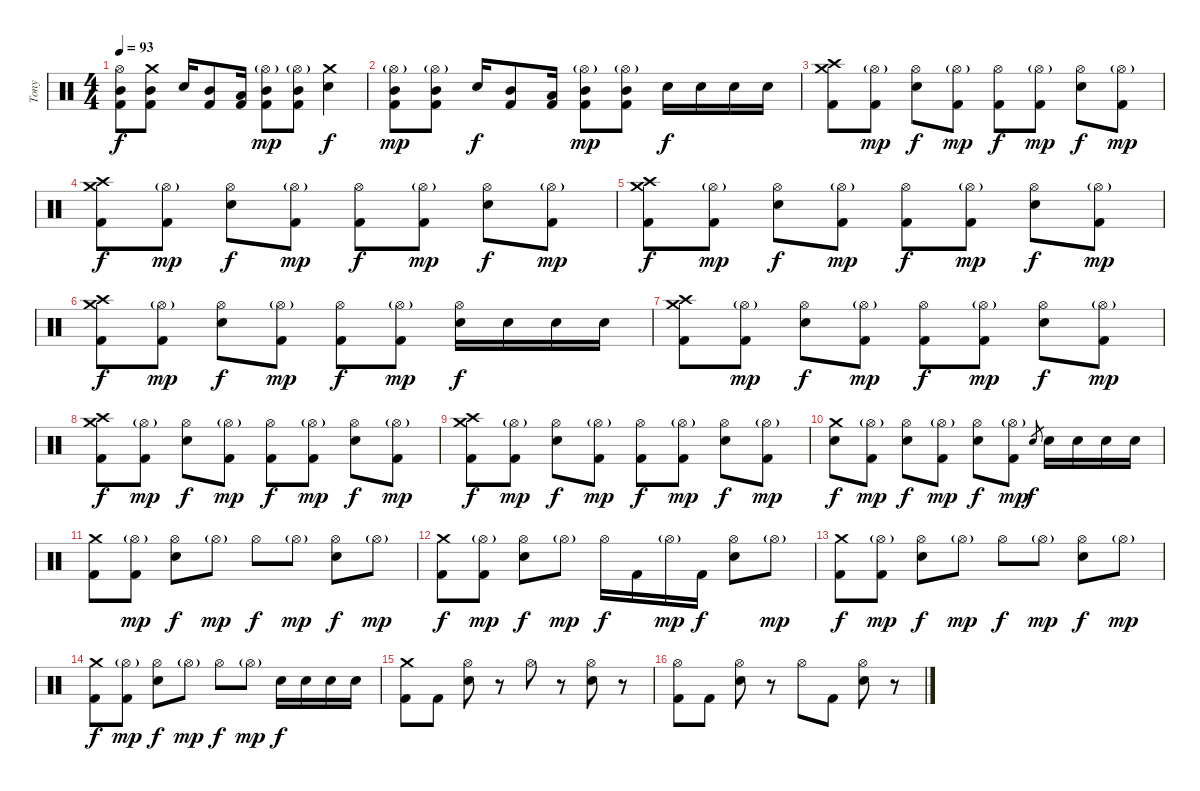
\track ("Tony" "Tony") {instrument percussion}
\staff {score}
\articulation defaults
\ts (4 4)
\tempo 93
\clef neutral
\ks c
("Hi-Hat (open)" "Mid Tom (hit)" "Kick (hit) 2").8{dy f} ("Crash medium (hit)" "Mid Tom (hit)" "Kick (hit) 2").8 "Electric Snare (hit)".16 ("Mid Tom (hit)" "Kick (hit) 2").8 ("Low Tom (hit)" "Kick (hit) 2").16 ("Hi-Hat (open)"{g} "Mid Tom (hit)" "Kick (hit) 2").8{dy mp} ("Hi-Hat (open)"{g} "Mid Tom (hit)" "Kick (hit) 2").8 ("Crash medium (hit)" "Electric Snare (hit)").4{dy f} |
("Hi-Hat (open)"{g} "Mid Tom (hit)" "Kick (hit) 2").8{dy mp} ("Hi-Hat (open)"{g} "Mid Tom (hit)" "Kick (hit) 2").8 "Electric Snare (hit)".16{dy f} ("Mid Tom (hit)" "Kick (hit) 2").8 ("Low Tom (hit)" "Kick (hit) 2").16 ("Hi-Hat (open)"{g} "Mid Tom (hit)" "Kick (hit) 2").8{dy mp} ("Hi-Hat (open)"{g} "Mid Tom (hit)" "Kick (hit) 2").8 "Electric Snare (hit)".16{dy f} "Electric Snare (hit)".16 "Electric Snare (hit)".16 "Electric Snare (hit)".16 |
("Crash high (hit)" "Crash medium (hit)" "Kick (hit) 2").8 ("Hi-Hat (open)"{g} "Kick (hit) 2").8{dy mp} ("Hi-Hat (open)" "Electric Snare (hit)").8{dy f} ("Hi-Hat (open)"{g} "Kick (hit) 2").8{dy mp} ("Hi-Hat (open)" "Kick (hit) 2").8{dy f} ("Hi-Hat (open)"{g} "Kick (hit) 2").8{dy mp} ("Hi-Hat (open)" "Electric Snare (hit)").8{dy f} ("Hi-Hat (open)"{g} "Kick (hit) 2").8{dy mp} |
("Crash high (hit)" "Crash medium (hit)" "Kick (hit) 2").8{dy f} ("Hi-Hat (open)"{g} "Kick (hit) 2").8{dy mp} ("Hi-Hat (open)" "Electric Snare (hit)").8{dy f} ("Hi-Hat (open)"{g} "Kick (hit) 2").8{dy mp} ("Hi-Hat (open)" "Kick (hit) 2").8{dy f} ("Hi-Hat (open)"{g} "Kick (hit) 2").8{dy mp} ("Hi-Hat (open)" "Electric Snare (hit)").8{dy f} ("Hi-Hat (open)"{g} "Kick (hit) 2").8{dy mp} |
("Crash high (hit)" "Crash medium (hit)" "Kick (hit) 2").8{dy f} ("Hi-Hat (open)"{g} "Kick (hit) 2").8{dy mp} ("Hi-Hat (open)" "Electric Snare (hit)").8{dy f} ("Hi-Hat (open)"{g} "Kick (hit) 2").8{dy mp} ("Hi-Hat (open)" "Kick (hit) 2").8{dy f} ("Hi-Hat (open)"{g} "Kick (hit) 2").8{dy mp} ("Hi-Hat (open)" "Electric Snare (hit)").8{dy f} ("Hi-Hat (open)"{g} "Kick (hit) 2").8{dy mp} |
("Crash high (hit)" "Crash medium (hit)" "Kick (hit) 2").8{dy f} ("Hi-Hat (open)"{g} "Kick (hit) 2").8{dy mp} ("Hi-Hat (open)" "Electric Snare (hit)").8{dy f} ("Hi-Hat (open)"{g} "Kick (hit) 2").8{dy mp} ("Hi-Hat (open)" "Kick (hit) 2").8{dy f} ("Hi-Hat (open)"{g} "Kick (hit) 2").8{dy mp} ("Hi-Hat (open)" "Electric Snare (hit)").16{dy f} "Electric Snare (hit)".16 "Electric Snare (hit)".16 "Electric Snare (hit)".16 |
("Crash high (hit)" "Crash medium (hit)" "Kick (hit) 2").8 ("Hi-Hat (open)"{g} "Kick (hit) 2").8{dy mp} ("Hi-Hat (open)" "Electric Snare (hit)").8{dy f} ("Hi-Hat (open)"{g} "Kick (hit) 2").8{dy mp} ("Hi-Hat (open)" "Kick (hit) 2").8{dy f} ("Hi-Hat (open)"{g} "Kick (hit) 2").8{dy mp} ("Hi-Hat (open)" "Electric Snare (hit)").8{dy f} ("Hi-Hat (open)"{g} "Kick (hit) 2").8{dy mp} |
("Crash high (hit)" "Crash medium (hit)" "Kick (hit) 2").8{dy f} ("Hi-Hat (open)"{g} "Kick (hit) 2").8{dy mp} ("Hi-Hat (open)" "Electric Snare (hit)").8{dy f} ("Hi-Hat (open)"{g} "Kick (hit) 2").8{dy mp} ("Hi-Hat (open)" "Kick (hit) 2").8{dy f} ("Hi-Hat (open)"{g} "Kick (hit) 2").8{dy mp} ("Hi-Hat (open)" "Electric Snare (hit)").8{dy f} ("Hi-Hat (open)"{g} "Kick (hit) 2").8{dy mp} |
("Crash high (hit)" "Crash medium (hit)" "Kick (hit) 2").8{dy f} ("Hi-Hat (open)"{g} "Kick (hit) 2").8{dy mp} ("Hi-Hat (open)" "Electric Snare (hit)").8{dy f} ("Hi-Hat (open)"{g} "Kick (hit) 2").8{dy mp} ("Hi-Hat (open)" "Kick (hit) 2").8{dy f} ("Hi-Hat (open)"{g} "Kick (hit) 2").8{dy mp} ("Hi-Hat (open)" "Electric Snare (hit)").8{dy f} ("Hi-Hat (open)"{g} "Kick (hit) 2").8{dy mp} |
("Crash medium (hit)" "Electric Snare (hit)").8{dy f} ("Hi-Hat (open)"{g} "Kick (hit) 2").8{dy mp} ("Hi-Hat (open)" "Electric Snare (hit)").8{dy f} ("Hi-Hat (open)"{g} "Kick (hit) 2").8{dy mp} ("Hi-Hat (open)" "Electric Snare (hit)").8{dy f} ("Hi-Hat (open)"{g} "Kick (hit) 2").8{dy mp} "Electric Snare (hit)".8{gr dy f} "Electric Snare (hit)".16 "Electric Snare (hit)".16 "Electric Snare (hit)".16 "Electric Snare (hit)".16 |
("Crash medium (hit)" "Kick (hit) 2").8 ("Hi-Hat (open)"{g} "Kick (hit) 2").8{dy mp} ("Hi-Hat (open)" "Electric Snare (hit)").8{dy f} "Hi-Hat (open)"{g}.8{dy mp} "Hi-Hat (open)".8{dy f} "Hi-Hat (open)"{g}.8{dy mp} ("Hi-Hat (open)" "Electric Snare (hit)").8{dy f} "Hi-Hat (open)"{g}.8{dy mp} |
("Crash medium (hit)" "Kick (hit) 2").8{dy f} ("Hi-Hat (open)"{g} "Kick (hit) 2").8{dy mp} ("Hi-Hat (open)" "Electric Snare (hit)").8{dy f} "Hi-Hat (open)"{g}.8{dy mp} "Hi-Hat (open)".16{dy f} "Kick (hit) 2".16 "Hi-Hat (open)"{g}.16{dy mp} "Kick (hit) 2".16{dy f} ("Hi-Hat (open)" "Electric Snare (hit)").8 "Hi-Hat (open)"{g}.8{dy mp} |
("Crash medium (hit)" "Kick (hit) 2").8{dy f} ("Hi-Hat (open)"{g} "Kick (hit) 2").8{dy mp} ("Hi-Hat (open)" "Electric Snare (hit)").8{dy f} "Hi-Hat (open)"{g}.8{dy mp} "Hi-Hat (open)".8{dy f} "Hi-Hat (open)"{g}.8{dy mp} ("Hi-Hat (open)" "Electric Snare (hit)").8{dy f} "Hi-Hat (open)"{g}.8{dy mp} |
("Crash medium (hit)" "Kick (hit) 2").8{dy f} ("Hi-Hat (open)"{g} "Kick (hit) 2").8{dy mp} ("Hi-Hat (open)" "Electric Snare (hit)").8{dy f} "Hi-Hat (open)"{g}.8{dy mp} "Hi-Hat (open)".8{dy f} "Hi-Hat (open)"{g}.8{dy mp} "Electric Snare (hit)".16{dy f} "Electric Snare (hit)".16 "Electric Snare (hit)".16 "Electric Snare (hit)".16 |
("Crash medium (hit)" "Kick (hit) 2").8 "Kick (hit) 2".8 ("Hi-Hat (open)" "Electric Snare (hit)").8 r.8 "Hi-Hat (open)".8 r.8 ("Hi-Hat (open)" "Electric Snare (hit)").8 r.8 |
("Hi-Hat (open)" "Kick (hit) 2").8 "Kick (hit) 2".8 ("Hi-Hat (open)" "Electric Snare (hit)").8 r.8 "Hi-Hat (open)".8 "Kick (hit) 2".8 ("Hi-Hat (open)" "Electric Snare (hit)").8 r.8
